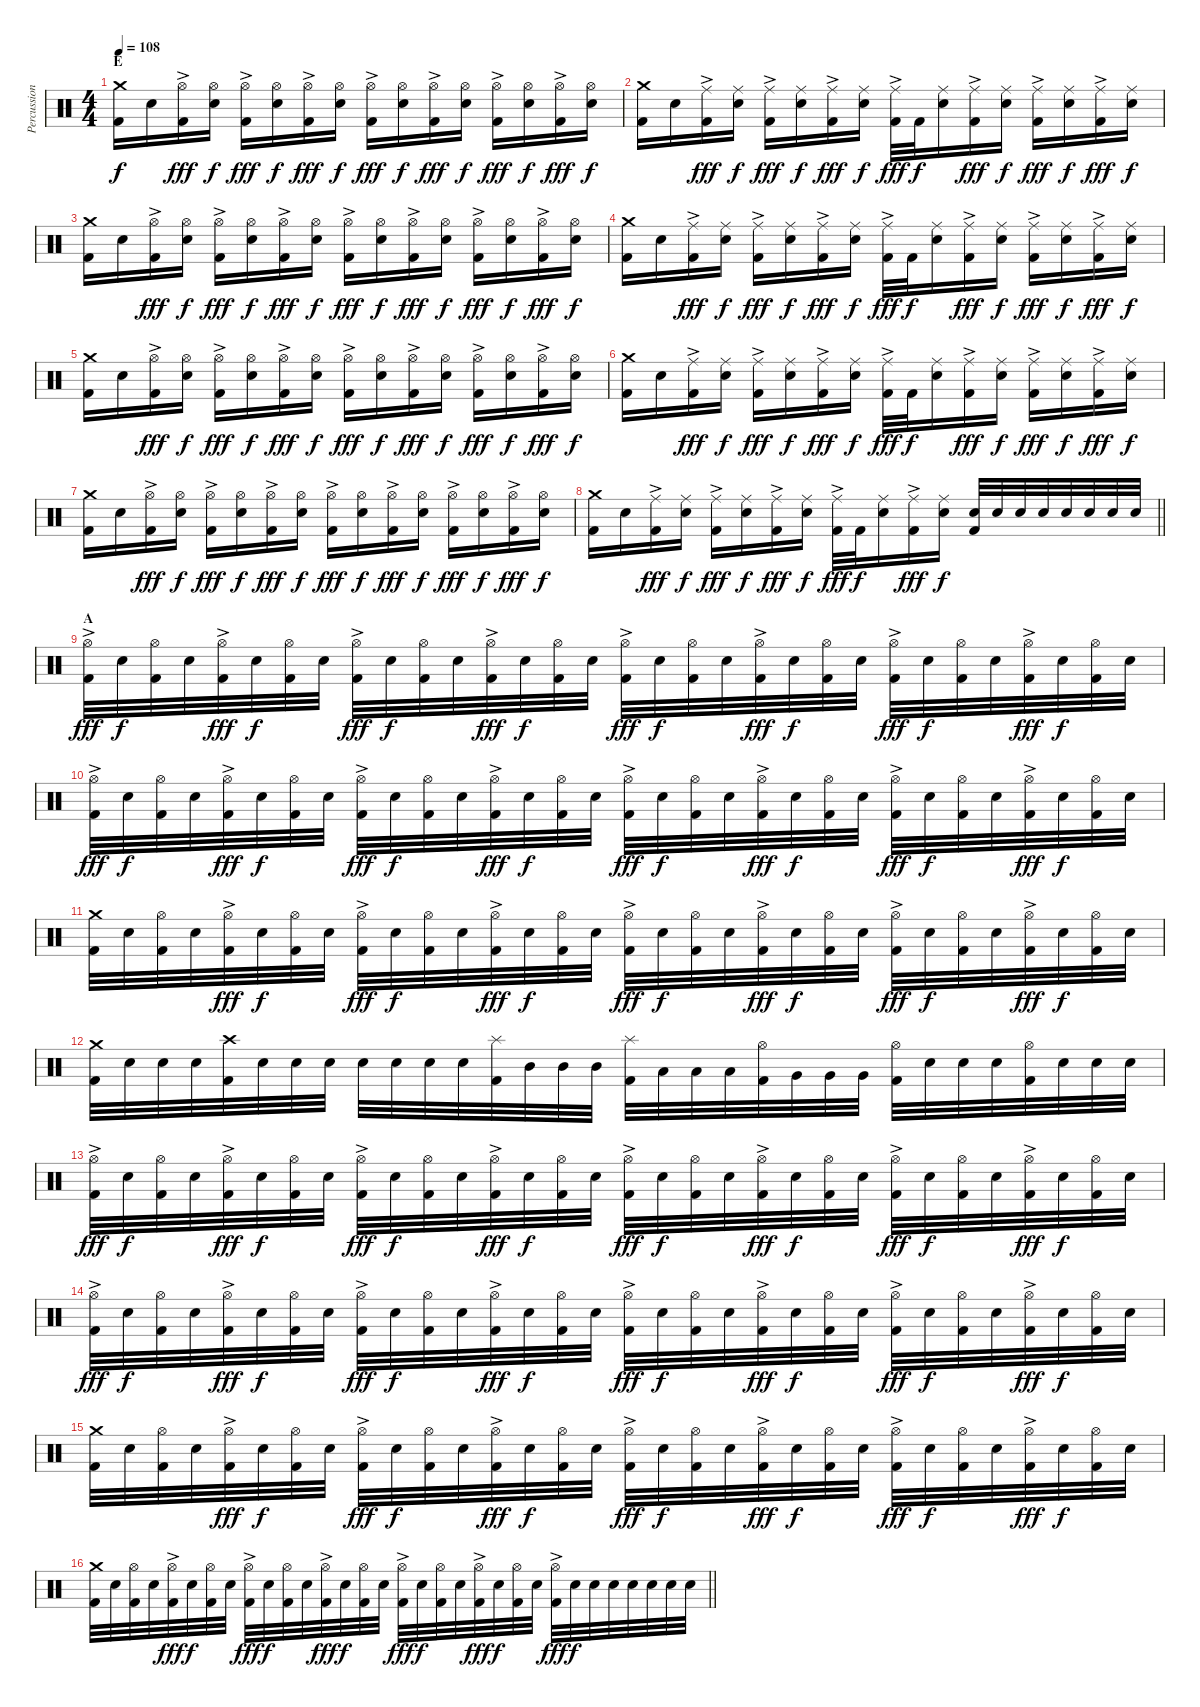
\track ("Percussion" "Percussion") {instrument percussion}
\staff {score}
\articulation defaults
\ts (4 4)
\section ("" "E")
\tempo 108
\clef neutral
\ks c
("Crash medium (hit)" "Kick (hit) 2").16{dy f} "Electric Snare (hit)".16 ("Hi-Hat (open)"{ac} "Kick (hit) 2").16{dy fff} ("Hi-Hat (open)" "Electric Snare (hit)").16{dy f} ("Hi-Hat (open)"{ac} "Kick (hit) 2").16{dy fff} ("Hi-Hat (open)" "Electric Snare (hit)").16{dy f} ("Hi-Hat (open)"{ac} "Kick (hit) 2").16{dy fff} ("Hi-Hat (open)" "Electric Snare (hit)").16{dy f} ("Hi-Hat (open)"{ac} "Kick (hit) 2").16{dy fff} ("Hi-Hat (open)" "Electric Snare (hit)").16{dy f} ("Hi-Hat (open)"{ac} "Kick (hit) 2").16{dy fff} ("Hi-Hat (open)" "Electric Snare (hit)").16{dy f} ("Hi-Hat (open)"{ac} "Kick (hit) 2").16{dy fff} ("Hi-Hat (open)" "Electric Snare (hit)").16{dy f} ("Hi-Hat (open)"{ac} "Kick (hit) 2").16{dy fff} ("Hi-Hat (open)" "Electric Snare (hit)").16{dy f} |
("Crash medium (hit)" "Kick (hit) 2").16 "Electric Snare (hit)".16 ("Ride (middle)"{ac} "Kick (hit) 2").16{dy fff} ("Ride (middle)" "Electric Snare (hit)").16{dy f} ("Ride (middle)"{ac} "Kick (hit) 2").16{dy fff} ("Ride (middle)" "Electric Snare (hit)").16{dy f} ("Ride (middle)"{ac} "Kick (hit) 2").16{dy fff} ("Ride (middle)" "Electric Snare (hit)").16{dy f} ("Ride (middle)"{ac} "Kick (hit) 2").32{dy fff} "Kick (hit) 2".32{dy f} ("Ride (middle)" "Electric Snare (hit)").16 ("Ride (middle)"{ac} "Kick (hit) 2").16{dy fff} ("Ride (middle)" "Electric Snare (hit)").16{dy f} ("Ride (middle)"{ac} "Kick (hit) 2").16{dy fff} ("Ride (middle)" "Electric Snare (hit)").16{dy f} ("Ride (middle)"{ac} "Kick (hit) 2").16{dy fff} ("Ride (middle)" "Electric Snare (hit)").16{dy f} |
("Crash medium (hit)" "Kick (hit) 2").16 "Electric Snare (hit)".16 ("Hi-Hat (open)"{ac} "Kick (hit) 2").16{dy fff} ("Hi-Hat (open)" "Electric Snare (hit)").16{dy f} ("Hi-Hat (open)"{ac} "Kick (hit) 2").16{dy fff} ("Hi-Hat (open)" "Electric Snare (hit)").16{dy f} ("Hi-Hat (open)"{ac} "Kick (hit) 2").16{dy fff} ("Hi-Hat (open)" "Electric Snare (hit)").16{dy f} ("Hi-Hat (open)"{ac} "Kick (hit) 2").16{dy fff} ("Hi-Hat (open)" "Electric Snare (hit)").16{dy f} ("Hi-Hat (open)"{ac} "Kick (hit) 2").16{dy fff} ("Hi-Hat (open)" "Electric Snare (hit)").16{dy f} ("Hi-Hat (open)"{ac} "Kick (hit) 2").16{dy fff} ("Hi-Hat (open)" "Electric Snare (hit)").16{dy f} ("Hi-Hat (open)"{ac} "Kick (hit) 2").16{dy fff} ("Hi-Hat (open)" "Electric Snare (hit)").16{dy f} |
("Crash medium (hit)" "Kick (hit) 2").16 "Electric Snare (hit)".16 ("Ride (middle)"{ac} "Kick (hit) 2").16{dy fff} ("Ride (middle)" "Electric Snare (hit)").16{dy f} ("Ride (middle)"{ac} "Kick (hit) 2").16{dy fff} ("Ride (middle)" "Electric Snare (hit)").16{dy f} ("Ride (middle)"{ac} "Kick (hit) 2").16{dy fff} ("Ride (middle)" "Electric Snare (hit)").16{dy f} ("Ride (middle)"{ac} "Kick (hit) 2").32{dy fff} "Kick (hit) 2".32{dy f} ("Ride (middle)" "Electric Snare (hit)").16 ("Ride (middle)"{ac} "Kick (hit) 2").16{dy fff} ("Ride (middle)" "Electric Snare (hit)").16{dy f} ("Ride (middle)"{ac} "Kick (hit) 2").16{dy fff} ("Ride (middle)" "Electric Snare (hit)").16{dy f} ("Ride (middle)"{ac} "Kick (hit) 2").16{dy fff} ("Ride (middle)" "Electric Snare (hit)").16{dy f} |
("Crash medium (hit)" "Kick (hit) 2").16 "Electric Snare (hit)".16 ("Hi-Hat (open)"{ac} "Kick (hit) 2").16{dy fff} ("Hi-Hat (open)" "Electric Snare (hit)").16{dy f} ("Hi-Hat (open)"{ac} "Kick (hit) 2").16{dy fff} ("Hi-Hat (open)" "Electric Snare (hit)").16{dy f} ("Hi-Hat (open)"{ac} "Kick (hit) 2").16{dy fff} ("Hi-Hat (open)" "Electric Snare (hit)").16{dy f} ("Hi-Hat (open)"{ac} "Kick (hit) 2").16{dy fff} ("Hi-Hat (open)" "Electric Snare (hit)").16{dy f} ("Hi-Hat (open)"{ac} "Kick (hit) 2").16{dy fff} ("Hi-Hat (open)" "Electric Snare (hit)").16{dy f} ("Hi-Hat (open)"{ac} "Kick (hit) 2").16{dy fff} ("Hi-Hat (open)" "Electric Snare (hit)").16{dy f} ("Hi-Hat (open)"{ac} "Kick (hit) 2").16{dy fff} ("Hi-Hat (open)" "Electric Snare (hit)").16{dy f} |
("Crash medium (hit)" "Kick (hit) 2").16 "Electric Snare (hit)".16 ("Ride (middle)"{ac} "Kick (hit) 2").16{dy fff} ("Ride (middle)" "Electric Snare (hit)").16{dy f} ("Ride (middle)"{ac} "Kick (hit) 2").16{dy fff} ("Ride (middle)" "Electric Snare (hit)").16{dy f} ("Ride (middle)"{ac} "Kick (hit) 2").16{dy fff} ("Ride (middle)" "Electric Snare (hit)").16{dy f} ("Ride (middle)"{ac} "Kick (hit) 2").32{dy fff} "Kick (hit) 2".32{dy f} ("Ride (middle)" "Electric Snare (hit)").16 ("Ride (middle)"{ac} "Kick (hit) 2").16{dy fff} ("Ride (middle)" "Electric Snare (hit)").16{dy f} ("Ride (middle)"{ac} "Kick (hit) 2").16{dy fff} ("Ride (middle)" "Electric Snare (hit)").16{dy f} ("Ride (middle)"{ac} "Kick (hit) 2").16{dy fff} ("Ride (middle)" "Electric Snare (hit)").16{dy f} |
("Crash medium (hit)" "Kick (hit) 2").16 "Electric Snare (hit)".16 ("Hi-Hat (open)"{ac} "Kick (hit) 2").16{dy fff} ("Hi-Hat (open)" "Electric Snare (hit)").16{dy f} ("Hi-Hat (open)"{ac} "Kick (hit) 2").16{dy fff} ("Hi-Hat (open)" "Electric Snare (hit)").16{dy f} ("Hi-Hat (open)"{ac} "Kick (hit) 2").16{dy fff} ("Hi-Hat (open)" "Electric Snare (hit)").16{dy f} ("Hi-Hat (open)"{ac} "Kick (hit) 2").16{dy fff} ("Hi-Hat (open)" "Electric Snare (hit)").16{dy f} ("Hi-Hat (open)"{ac} "Kick (hit) 2").16{dy fff} ("Hi-Hat (open)" "Electric Snare (hit)").16{dy f} ("Hi-Hat (open)"{ac} "Kick (hit) 2").16{dy fff} ("Hi-Hat (open)" "Electric Snare (hit)").16{dy f} ("Hi-Hat (open)"{ac} "Kick (hit) 2").16{dy fff} ("Hi-Hat (open)" "Electric Snare (hit)").16{dy f} |
\barLineRight lightlight
("Crash medium (hit)" "Kick (hit) 2").16 "Electric Snare (hit)".16 ("Ride (middle)"{ac} "Kick (hit) 2").16{dy fff} ("Ride (middle)" "Electric Snare (hit)").16{dy f} ("Ride (middle)"{ac} "Kick (hit) 2").16{dy fff} ("Ride (middle)" "Electric Snare (hit)").16{dy f} ("Ride (middle)"{ac} "Kick (hit) 2").16{dy fff} ("Ride (middle)" "Electric Snare (hit)").16{dy f} ("Ride (middle)"{ac} "Kick (hit) 2").32{dy fff} "Kick (hit) 2".32{dy f} ("Ride (middle)" "Electric Snare (hit)").16 ("Ride (middle)"{ac} "Kick (hit) 2").16{dy fff} ("Ride (middle)" "Electric Snare (hit)").16{dy f} ("Electric Snare (hit)" "Kick (hit) 2").32 "Electric Snare (hit)".32 "Electric Snare (hit)".32 "Electric Snare (hit)".32 "Electric Snare (hit)".32 "Electric Snare (hit)".32 "Electric Snare (hit)".32 "Electric Snare (hit)".32 |
\section ("" "A")
("Hi-Hat (open)"{ac} "Kick (hit) 2").32{dy fff} "Electric Snare (hit)".32{dy f} ("Hi-Hat (open)" "Kick (hit) 2").32 "Electric Snare (hit)".32 ("Hi-Hat (open)"{ac} "Kick (hit) 2").32{dy fff} "Electric Snare (hit)".32{dy f} ("Hi-Hat (open)" "Kick (hit) 2").32 "Electric Snare (hit)".32 ("Hi-Hat (open)"{ac} "Kick (hit) 2").32{dy fff} "Electric Snare (hit)".32{dy f} ("Hi-Hat (open)" "Kick (hit) 2").32 "Electric Snare (hit)".32 ("Hi-Hat (open)"{ac} "Kick (hit) 2").32{dy fff} "Electric Snare (hit)".32{dy f} ("Hi-Hat (open)" "Kick (hit) 2").32 "Electric Snare (hit)".32 ("Hi-Hat (open)"{ac} "Kick (hit) 2").32{dy fff} "Electric Snare (hit)".32{dy f} ("Hi-Hat (open)" "Kick (hit) 2").32 "Electric Snare (hit)".32 ("Hi-Hat (open)"{ac} "Kick (hit) 2").32{dy fff} "Electric Snare (hit)".32{dy f} ("Hi-Hat (open)" "Kick (hit) 2").32 "Electric Snare (hit)".32 ("Hi-Hat (open)"{ac} "Kick (hit) 2").32{dy fff} "Electric Snare (hit)".32{dy f} ("Hi-Hat (open)" "Kick (hit) 2").32 "Electric Snare (hit)".32 ("Hi-Hat (open)"{ac} "Kick (hit) 2").32{dy fff} "Electric Snare (hit)".32{dy f} ("Hi-Hat (open)" "Kick (hit) 2").32 "Electric Snare (hit)".32 |
("Hi-Hat (open)"{ac} "Kick (hit) 2").32{dy fff} "Electric Snare (hit)".32{dy f} ("Hi-Hat (open)" "Kick (hit) 2").32 "Electric Snare (hit)".32 ("Hi-Hat (open)"{ac} "Kick (hit) 2").32{dy fff} "Electric Snare (hit)".32{dy f} ("Hi-Hat (open)" "Kick (hit) 2").32 "Electric Snare (hit)".32 ("Hi-Hat (open)"{ac} "Kick (hit) 2").32{dy fff} "Electric Snare (hit)".32{dy f} ("Hi-Hat (open)" "Kick (hit) 2").32 "Electric Snare (hit)".32 ("Hi-Hat (open)"{ac} "Kick (hit) 2").32{dy fff} "Electric Snare (hit)".32{dy f} ("Hi-Hat (open)" "Kick (hit) 2").32 "Electric Snare (hit)".32 ("Hi-Hat (open)"{ac} "Kick (hit) 2").32{dy fff} "Electric Snare (hit)".32{dy f} ("Hi-Hat (open)" "Kick (hit) 2").32 "Electric Snare (hit)".32 ("Hi-Hat (open)"{ac} "Kick (hit) 2").32{dy fff} "Electric Snare (hit)".32{dy f} ("Hi-Hat (open)" "Kick (hit) 2").32 "Electric Snare (hit)".32 ("Hi-Hat (open)"{ac} "Kick (hit) 2").32{dy fff} "Electric Snare (hit)".32{dy f} ("Hi-Hat (open)" "Kick (hit) 2").32 "Electric Snare (hit)".32 ("Hi-Hat (open)"{ac} "Kick (hit) 2").32{dy fff} "Electric Snare (hit)".32{dy f} ("Hi-Hat (open)" "Kick (hit) 2").32 "Electric Snare (hit)".32 |
("Crash medium (hit)" "Kick (hit) 2").32 "Electric Snare (hit)".32 ("Hi-Hat (open)" "Kick (hit) 2").32 "Electric Snare (hit)".32 ("Hi-Hat (open)"{ac} "Kick (hit) 2").32{dy fff} "Electric Snare (hit)".32{dy f} ("Hi-Hat (open)" "Kick (hit) 2").32 "Electric Snare (hit)".32 ("Hi-Hat (open)"{ac} "Kick (hit) 2").32{dy fff} "Electric Snare (hit)".32{dy f} ("Hi-Hat (open)" "Kick (hit) 2").32 "Electric Snare (hit)".32 ("Hi-Hat (open)"{ac} "Kick (hit) 2").32{dy fff} "Electric Snare (hit)".32{dy f} ("Hi-Hat (open)" "Kick (hit) 2").32 "Electric Snare (hit)".32 ("Hi-Hat (open)"{ac} "Kick (hit) 2").32{dy fff} "Electric Snare (hit)".32{dy f} ("Hi-Hat (open)" "Kick (hit) 2").32 "Electric Snare (hit)".32 ("Hi-Hat (open)"{ac} "Kick (hit) 2").32{dy fff} "Electric Snare (hit)".32{dy f} ("Hi-Hat (open)" "Kick (hit) 2").32 "Electric Snare (hit)".32 ("Hi-Hat (open)"{ac} "Kick (hit) 2").32{dy fff} "Electric Snare (hit)".32{dy f} ("Hi-Hat (open)" "Kick (hit) 2").32 "Electric Snare (hit)".32 ("Hi-Hat (open)"{ac} "Kick (hit) 2").32{dy fff} "Electric Snare (hit)".32{dy f} ("Hi-Hat (open)" "Kick (hit) 2").32 "Electric Snare (hit)".32 |
("Crash medium (hit)" "Kick (hit) 2").32 "Electric Snare (hit)".32 "Electric Snare (hit)".32 "Electric Snare (hit)".32 ("Crash high (hit)" "Kick (hit) 2").32 "Electric Snare (hit)".32 "Electric Snare (hit)".32 "Electric Snare (hit)".32 "Electric Snare (hit)".32 "Electric Snare (hit)".32 "Electric Snare (hit)".32 "Electric Snare (hit)".32 ("Splash (hit)" "Kick (hit) 2").32 "Mid Tom (hit)".32 "Mid Tom (hit)".32 "Mid Tom (hit)".32 ("Splash (hit)" "Kick (hit) 2").32 "Low Tom (hit)".32 "Low Tom (hit)".32 "Low Tom (hit)".32 ("Hi-Hat (open)" "Kick (hit) 2").32 "Very Low Tom (hit)".32 "Very Low Tom (hit)".32 "Very Low Tom (hit)".32 ("Hi-Hat (open)" "Kick (hit) 2").32 "Electric Snare (hit)".32 "Electric Snare (hit)".32 "Electric Snare (hit)".32 ("Hi-Hat (open)" "Kick (hit) 2").32 "Electric Snare (hit)".32 "Electric Snare (hit)".32 "Electric Snare (hit)".32 |
("Hi-Hat (open)"{ac} "Kick (hit) 2").32{dy fff} "Electric Snare (hit)".32{dy f} ("Hi-Hat (open)" "Kick (hit) 2").32 "Electric Snare (hit)".32 ("Hi-Hat (open)"{ac} "Kick (hit) 2").32{dy fff} "Electric Snare (hit)".32{dy f} ("Hi-Hat (open)" "Kick (hit) 2").32 "Electric Snare (hit)".32 ("Hi-Hat (open)"{ac} "Kick (hit) 2").32{dy fff} "Electric Snare (hit)".32{dy f} ("Hi-Hat (open)" "Kick (hit) 2").32 "Electric Snare (hit)".32 ("Hi-Hat (open)"{ac} "Kick (hit) 2").32{dy fff} "Electric Snare (hit)".32{dy f} ("Hi-Hat (open)" "Kick (hit) 2").32 "Electric Snare (hit)".32 ("Hi-Hat (open)"{ac} "Kick (hit) 2").32{dy fff} "Electric Snare (hit)".32{dy f} ("Hi-Hat (open)" "Kick (hit) 2").32 "Electric Snare (hit)".32 ("Hi-Hat (open)"{ac} "Kick (hit) 2").32{dy fff} "Electric Snare (hit)".32{dy f} ("Hi-Hat (open)" "Kick (hit) 2").32 "Electric Snare (hit)".32 ("Hi-Hat (open)"{ac} "Kick (hit) 2").32{dy fff} "Electric Snare (hit)".32{dy f} ("Hi-Hat (open)" "Kick (hit) 2").32 "Electric Snare (hit)".32 ("Hi-Hat (open)"{ac} "Kick (hit) 2").32{dy fff} "Electric Snare (hit)".32{dy f} ("Hi-Hat (open)" "Kick (hit) 2").32 "Electric Snare (hit)".32 |
("Hi-Hat (open)"{ac} "Kick (hit) 2").32{dy fff} "Electric Snare (hit)".32{dy f} ("Hi-Hat (open)" "Kick (hit) 2").32 "Electric Snare (hit)".32 ("Hi-Hat (open)"{ac} "Kick (hit) 2").32{dy fff} "Electric Snare (hit)".32{dy f} ("Hi-Hat (open)" "Kick (hit) 2").32 "Electric Snare (hit)".32 ("Hi-Hat (open)"{ac} "Kick (hit) 2").32{dy fff} "Electric Snare (hit)".32{dy f} ("Hi-Hat (open)" "Kick (hit) 2").32 "Electric Snare (hit)".32 ("Hi-Hat (open)"{ac} "Kick (hit) 2").32{dy fff} "Electric Snare (hit)".32{dy f} ("Hi-Hat (open)" "Kick (hit) 2").32 "Electric Snare (hit)".32 ("Hi-Hat (open)"{ac} "Kick (hit) 2").32{dy fff} "Electric Snare (hit)".32{dy f} ("Hi-Hat (open)" "Kick (hit) 2").32 "Electric Snare (hit)".32 ("Hi-Hat (open)"{ac} "Kick (hit) 2").32{dy fff} "Electric Snare (hit)".32{dy f} ("Hi-Hat (open)" "Kick (hit) 2").32 "Electric Snare (hit)".32 ("Hi-Hat (open)"{ac} "Kick (hit) 2").32{dy fff} "Electric Snare (hit)".32{dy f} ("Hi-Hat (open)" "Kick (hit) 2").32 "Electric Snare (hit)".32 ("Hi-Hat (open)"{ac} "Kick (hit) 2").32{dy fff} "Electric Snare (hit)".32{dy f} ("Hi-Hat (open)" "Kick (hit) 2").32 "Electric Snare (hit)".32 |
("Crash medium (hit)" "Kick (hit) 2").32 "Electric Snare (hit)".32 ("Hi-Hat (open)" "Kick (hit) 2").32 "Electric Snare (hit)".32 ("Hi-Hat (open)"{ac} "Kick (hit) 2").32{dy fff} "Electric Snare (hit)".32{dy f} ("Hi-Hat (open)" "Kick (hit) 2").32 "Electric Snare (hit)".32 ("Hi-Hat (open)"{ac} "Kick (hit) 2").32{dy fff} "Electric Snare (hit)".32{dy f} ("Hi-Hat (open)" "Kick (hit) 2").32 "Electric Snare (hit)".32 ("Hi-Hat (open)"{ac} "Kick (hit) 2").32{dy fff} "Electric Snare (hit)".32{dy f} ("Hi-Hat (open)" "Kick (hit) 2").32 "Electric Snare (hit)".32 ("Hi-Hat (open)"{ac} "Kick (hit) 2").32{dy fff} "Electric Snare (hit)".32{dy f} ("Hi-Hat (open)" "Kick (hit) 2").32 "Electric Snare (hit)".32 ("Hi-Hat (open)"{ac} "Kick (hit) 2").32{dy fff} "Electric Snare (hit)".32{dy f} ("Hi-Hat (open)" "Kick (hit) 2").32 "Electric Snare (hit)".32 ("Hi-Hat (open)"{ac} "Kick (hit) 2").32{dy fff} "Electric Snare (hit)".32{dy f} ("Hi-Hat (open)" "Kick (hit) 2").32 "Electric Snare (hit)".32 ("Hi-Hat (open)"{ac} "Kick (hit) 2").32{dy fff} "Electric Snare (hit)".32{dy f} ("Hi-Hat (open)" "Kick (hit) 2").32 "Electric Snare (hit)".32 |
\barLineRight lightlight
("Crash medium (hit)" "Kick (hit) 2").32 "Electric Snare (hit)".32 ("Hi-Hat (open)" "Kick (hit) 2").32 "Electric Snare (hit)".32 ("Hi-Hat (open)"{ac} "Kick (hit) 2").32{dy fff} "Electric Snare (hit)".32{dy f} ("Hi-Hat (open)" "Kick (hit) 2").32 "Electric Snare (hit)".32 ("Hi-Hat (open)"{ac} "Kick (hit) 2").32{dy fff} "Electric Snare (hit)".32{dy f} ("Hi-Hat (open)" "Kick (hit) 2").32 "Electric Snare (hit)".32 ("Hi-Hat (open)"{ac} "Kick (hit) 2").32{dy fff} "Electric Snare (hit)".32{dy f} ("Hi-Hat (open)" "Kick (hit) 2").32 "Electric Snare (hit)".32 ("Hi-Hat (open)"{ac} "Kick (hit) 2").32{dy fff} "Electric Snare (hit)".32{dy f} ("Hi-Hat (open)" "Kick (hit) 2").32 "Electric Snare (hit)".32 ("Hi-Hat (open)"{ac} "Kick (hit) 2").32{dy fff} "Electric Snare (hit)".32{dy f} ("Hi-Hat (open)" "Kick (hit) 2").32 "Electric Snare (hit)".32 ("Hi-Hat (open)"{ac} "Kick (hit) 2").32{dy fff} "Electric Snare (hit)".32{dy f} "Electric Snare (hit)".32 "Electric Snare (hit)".32 "Electric Snare (hit)".32 "Electric Snare (hit)".32 "Electric Snare (hit)".32 "Electric Snare (hit)".32
